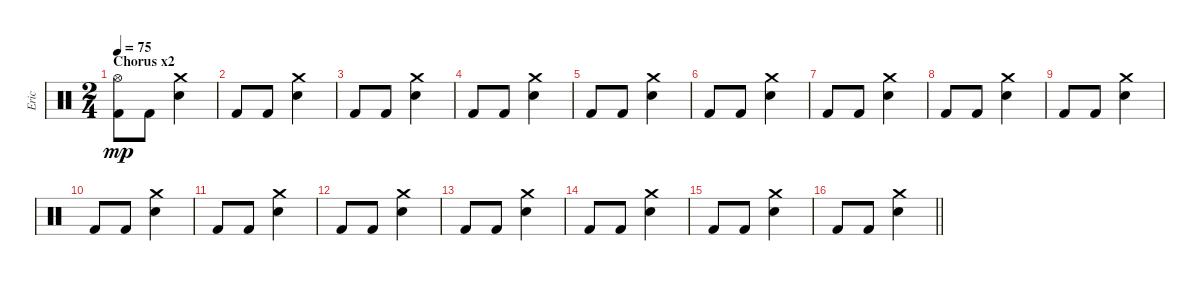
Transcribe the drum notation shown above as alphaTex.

\track ("Eric" "Eric") {instrument percussion}
\staff {score}
\articulation defaults
\ts (2 4)
\section ("" "Chorus x2")
\tempo 75
\clef neutral
\ks c
("Hi-Hat (open)" "Kick (hit) 2").8{dy mp} "Kick (hit) 2".8 ("Crash medium (hit)" "Snare (hit) 2").4 |
"Kick (hit) 2".8 "Kick (hit) 2".8 ("Crash medium (hit)" "Snare (hit) 2").4 |
"Kick (hit) 2".8 "Kick (hit) 2".8 ("Crash medium (hit)" "Snare (hit) 2").4 |
"Kick (hit) 2".8 "Kick (hit) 2".8 ("Crash medium (hit)" "Snare (hit) 2").4 |
"Kick (hit) 2".8 "Kick (hit) 2".8 ("Crash medium (hit)" "Snare (hit) 2").4 |
"Kick (hit) 2".8 "Kick (hit) 2".8 ("Crash medium (hit)" "Snare (hit) 2").4 |
"Kick (hit) 2".8 "Kick (hit) 2".8 ("Crash medium (hit)" "Snare (hit) 2").4 |
"Kick (hit) 2".8 "Kick (hit) 2".8 ("Crash medium (hit)" "Snare (hit) 2").4 |
"Kick (hit) 2".8 "Kick (hit) 2".8 ("Crash medium (hit)" "Snare (hit) 2").4 |
"Kick (hit) 2".8 "Kick (hit) 2".8 ("Crash medium (hit)" "Snare (hit) 2").4 |
"Kick (hit) 2".8 "Kick (hit) 2".8 ("Crash medium (hit)" "Snare (hit) 2").4 |
"Kick (hit) 2".8 "Kick (hit) 2".8 ("Crash medium (hit)" "Snare (hit) 2").4 |
"Kick (hit) 2".8 "Kick (hit) 2".8 ("Crash medium (hit)" "Snare (hit) 2").4 |
"Kick (hit) 2".8 "Kick (hit) 2".8 ("Crash medium (hit)" "Snare (hit) 2").4 |
"Kick (hit) 2".8 "Kick (hit) 2".8 ("Crash medium (hit)" "Snare (hit) 2").4 |
\barLineRight lightlight "Kick (hit) 2".8 "Kick (hit) 2".8
("Crash medium (hit)" "Snare (hit) 2").4
